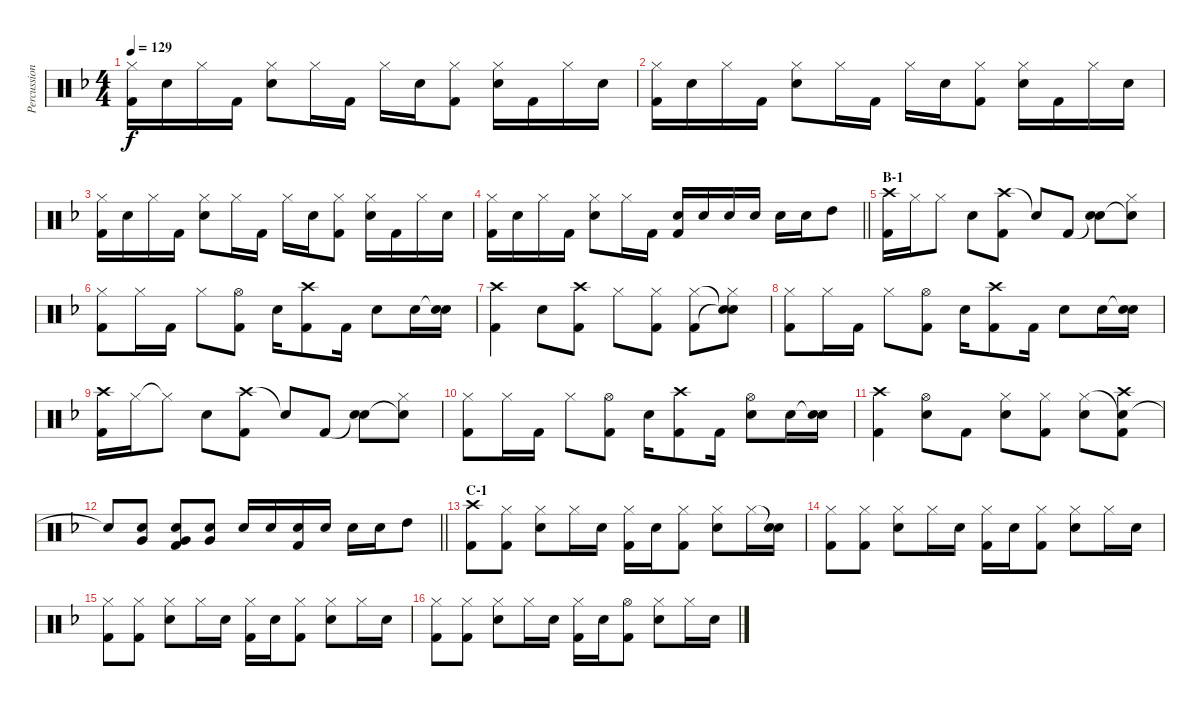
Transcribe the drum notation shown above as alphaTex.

\track ("Percussion" "Percussion") {instrument percussion}
\staff {score}
\articulation defaults
\ts (4 4)
\tempo 129
\clef neutral
\ks f
("Hi-Hat (closed)" "Kick (hit) 2").16{dy f} "Electric Snare (hit)".16 "Hi-Hat (closed)".16 "Kick (hit) 2".16 ("Hi-Hat (closed)" "Electric Snare (hit)").8 "Hi-Hat (closed)".16 "Kick (hit) 2".16 "Hi-Hat (closed)".16 "Electric Snare (hit)".16 ("Hi-Hat (closed)" "Kick (hit) 2").8 ("Hi-Hat (closed)" "Electric Snare (hit)").16 "Kick (hit) 2".16 "Hi-Hat (closed)".16 "Electric Snare (hit)".16 |
("Hi-Hat (closed)" "Kick (hit) 2").16 "Electric Snare (hit)".16 "Hi-Hat (closed)".16 "Kick (hit) 2".16 ("Hi-Hat (closed)" "Electric Snare (hit)").8 "Hi-Hat (closed)".16 "Kick (hit) 2".16 "Hi-Hat (closed)".16 "Electric Snare (hit)".16 ("Hi-Hat (closed)" "Kick (hit) 2").8 ("Hi-Hat (closed)" "Electric Snare (hit)").16 "Kick (hit) 2".16 "Hi-Hat (closed)".16 "Electric Snare (hit)".16 |
("Hi-Hat (closed)" "Kick (hit) 2").16 "Electric Snare (hit)".16 "Hi-Hat (closed)".16 "Kick (hit) 2".16 ("Hi-Hat (closed)" "Electric Snare (hit)").8 "Hi-Hat (closed)".16 "Kick (hit) 2".16 "Hi-Hat (closed)".16 "Electric Snare (hit)".16 ("Hi-Hat (closed)" "Kick (hit) 2").8 ("Hi-Hat (closed)" "Electric Snare (hit)").16 "Kick (hit) 2".16 "Hi-Hat (closed)".16 "Electric Snare (hit)".16 |
\barLineRight lightlight
("Hi-Hat (closed)" "Kick (hit) 2").16 "Electric Snare (hit)".16 "Hi-Hat (closed)".16 "Kick (hit) 2".16 ("Hi-Hat (closed)" "Electric Snare (hit)").8 "Hi-Hat (closed)".16 "Kick (hit) 2".16 ("Electric Snare (hit)" "Kick (hit) 2").16 "Electric Snare (hit)".16 "Electric Snare (hit)".16 "Electric Snare (hit)".16 "Electric Snare (hit)".16 "Electric Snare (hit)".16 "High Tom (hit)".8 |
\section ("" "B-1")
("Crash high (hit)" "Kick (hit) 2").16 "Hi-Hat (closed)".16 "Hi-Hat (closed)".8 "Electric Snare (hit)".8 ("Crash high (hit)" "Kick (hit) 2").8 "Snare (hit)"{t}.8 "Kick (hit) 2".8 ("Snare (hit)"{t} "Electric Snare (hit)").8 ("Snare (hit)"{t} "Hi-Hat (closed)").8 |
("Hi-Hat (closed)" "Kick (hit) 2").8 "Hi-Hat (closed)".16 "Kick (hit) 2".16 "Hi-Hat (closed)".8 ("Hi-Hat (open)" "Kick (hit) 2").8 "Electric Snare (hit)".16 ("Crash high (hit)" "Kick (hit) 2").8 "Kick (hit) 2".16 "Electric Snare (hit)".8 "Electric Snare (hit)".16 ("Snare (hit)"{t} "Electric Snare (hit)").16 |
("Crash high (hit)" "Kick (hit) 2").4 "Electric Snare (hit)".8 ("Crash high (hit)" "Kick (hit) 2").8 "Hi-Hat (closed)".8 ("Hi-Hat (closed)" "Kick (hit) 2").8 ("Hi-Hat (closed)" "Kick (hit) 2").8 ("Snare (hit)"{t} "Snare (hit)"{t} "Hi-Hat (closed)").8 |
("Hi-Hat (closed)" "Kick (hit) 2").8 "Hi-Hat (closed)".16 "Kick (hit) 2".16 "Hi-Hat (closed)".8 ("Hi-Hat (open)" "Kick (hit) 2").8 "Electric Snare (hit)".16 ("Crash high (hit)" "Kick (hit) 2").8 "Kick (hit) 2".16 "Electric Snare (hit)".8 "Electric Snare (hit)".16 ("Snare (hit)"{t} "Electric Snare (hit)").16 |
("Crash high (hit)" "Kick (hit) 2").16 "Hi-Hat (closed)".16 "Hi-Hat (closed)"{t}.8 "Electric Snare (hit)".8 ("Crash high (hit)" "Kick (hit) 2").8 "Snare (hit)"{t}.8 "Kick (hit) 2".8 ("Snare (hit)"{t} "Electric Snare (hit)").8 ("Snare (hit)"{t} "Hi-Hat (closed)").8 |
("Hi-Hat (closed)" "Kick (hit) 2").8 "Hi-Hat (closed)".16 "Kick (hit) 2".16 "Hi-Hat (closed)".8 ("Hi-Hat (open)" "Kick (hit) 2").8 "Electric Snare (hit)".16 ("Crash high (hit)" "Kick (hit) 2").8 "Kick (hit) 2".16 ("Electric Snare (hit)" "Hi-Hat (open)").8 "Electric Snare (hit)".16 ("Snare (hit)"{t} "Electric Snare (hit)").16 |
("Crash high (hit)" "Kick (hit) 2").4 ("Hi-Hat (open)" "Electric Snare (hit)").8 "Kick (hit) 2".8 ("Hi-Hat (closed)" "Electric Snare (hit)").8 ("Hi-Hat (closed)" "Kick (hit) 2").8 ("Hi-Hat (closed)" "Electric Snare (hit)").8 ("Snare (hit)"{t} "Crash high (hit)" "Kick (hit) 2").8 |
\barLineRight lightlight "Snare (hit)"{t}.8
("Electric Snare (hit)" "Very Low Tom (hit)").8 ("Electric Snare (hit)" "Very Low Tom (hit)" "Kick (hit) 2").8 ("Electric Snare (hit)" "Very Low Tom (hit)").8 "Electric Snare (hit)".16 "Electric Snare (hit)".16 ("Electric Snare (hit)" "Kick (hit) 2").16 "Electric Snare (hit)".16 "Electric Snare (hit)".16 "Electric Snare (hit)".16 "High Tom (hit)".8 |
\section ("" "C-1")
("Crash high (hit)" "Kick (hit) 2").8 ("Hi-Hat (closed)" "Kick (hit) 2").8 ("Hi-Hat (closed)" "Electric Snare (hit)").8 "Hi-Hat (closed)".16 "Electric Snare (hit)".16 ("Hi-Hat (closed)" "Kick (hit) 2").16 "Electric Snare (hit)".16 ("Hi-Hat (closed)" "Kick (hit) 2").8 ("Hi-Hat (closed)" "Electric Snare (hit)").8 "Hi-Hat (closed)".16 ("Snare (hit)"{t} "Electric Snare (hit)").16 |
("Hi-Hat (closed)" "Kick (hit) 2").8 ("Hi-Hat (closed)" "Kick (hit) 2").8 ("Hi-Hat (closed)" "Electric Snare (hit)").8 "Hi-Hat (closed)".16 "Electric Snare (hit)".16 ("Hi-Hat (closed)" "Kick (hit) 2").16 "Electric Snare (hit)".16 ("Hi-Hat (closed)" "Kick (hit) 2").8 ("Hi-Hat (closed)" "Electric Snare (hit)").8 "Hi-Hat (closed)".16 "Electric Snare (hit)".16 |
("Hi-Hat (closed)" "Kick (hit) 2").8 ("Hi-Hat (closed)" "Kick (hit) 2").8 ("Hi-Hat (closed)" "Electric Snare (hit)").8 "Hi-Hat (closed)".16 "Electric Snare (hit)".16 ("Hi-Hat (closed)" "Kick (hit) 2").16 "Electric Snare (hit)".16 ("Hi-Hat (closed)" "Kick (hit) 2").8 ("Hi-Hat (closed)" "Electric Snare (hit)").8 "Hi-Hat (closed)".16 "Electric Snare (hit)".16 |
("Hi-Hat (closed)" "Kick (hit) 2").8 ("Hi-Hat (closed)" "Kick (hit) 2").8 ("Hi-Hat (closed)" "Electric Snare (hit)").8 "Hi-Hat (closed)".16 "Electric Snare (hit)".16 ("Hi-Hat (closed)" "Kick (hit) 2").16 "Electric Snare (hit)".16 ("Hi-Hat (open)" "Kick (hit) 2").8 ("Hi-Hat (closed)" "Electric Snare (hit)").8 "Hi-Hat (closed)".16 "Electric Snare (hit)".16
